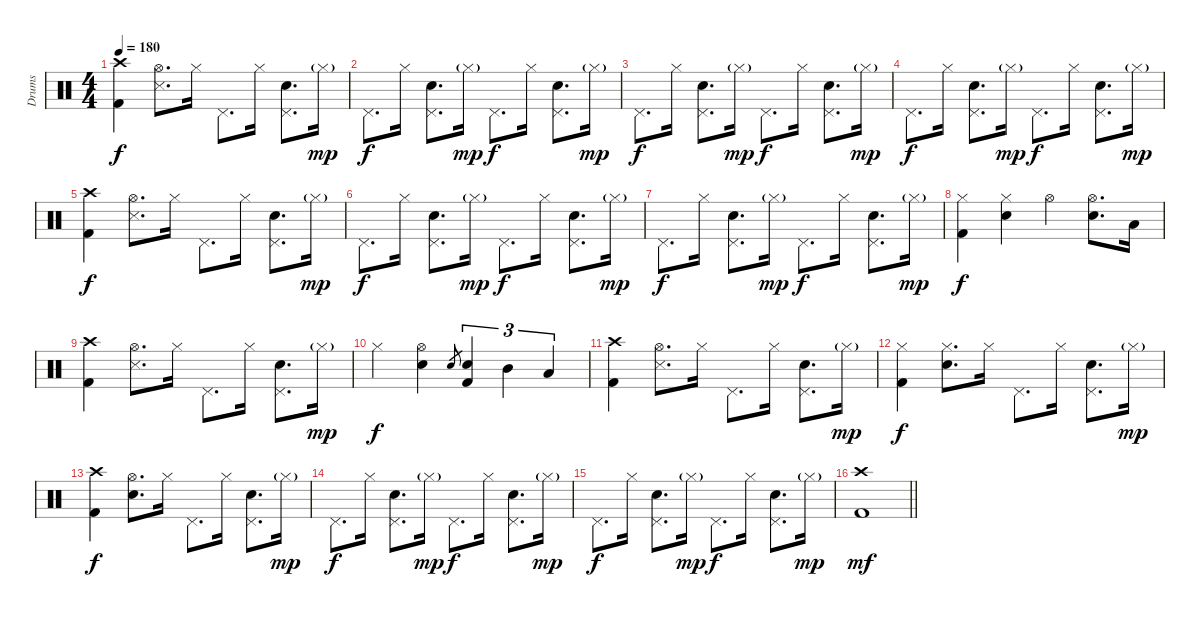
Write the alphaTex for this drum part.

\track ("Drums" "Drums") {instrument percussion}
\staff {score}
\articulation defaults
\ts (4 4)
\tempo 180
\clef neutral
\ks c
("Crash high (hit)" "Kick (hit) 2").4{dy f} ("Hi-Hat (open)" "Snare (side stick) 3").8{d} "Hi-Hat (closed)".16 "Pedal Hi-Hat (hit)".8{d} "Hi-Hat (closed)".16 ("Pedal Hi-Hat (hit)" "Snare (hit) 2").8{d} "Hi-Hat (closed)"{g}.16{dy mp} |
"Pedal Hi-Hat (hit)".8{d dy f} "Hi-Hat (closed)".16 ("Pedal Hi-Hat (hit)" "Snare (hit) 2").8{d} "Hi-Hat (closed)"{g}.16{dy mp} "Pedal Hi-Hat (hit)".8{d dy f} "Hi-Hat (closed)".16 ("Pedal Hi-Hat (hit)" "Snare (hit) 2").8{d} "Hi-Hat (closed)"{g}.16{dy mp} |
"Pedal Hi-Hat (hit)".8{d dy f} "Hi-Hat (closed)".16 ("Pedal Hi-Hat (hit)" "Snare (hit) 2").8{d} "Hi-Hat (closed)"{g}.16{dy mp} "Pedal Hi-Hat (hit)".8{d dy f} "Hi-Hat (closed)".16 ("Pedal Hi-Hat (hit)" "Snare (hit) 2").8{d} "Hi-Hat (closed)"{g}.16{dy mp} |
"Pedal Hi-Hat (hit)".8{d dy f} "Hi-Hat (closed)".16 ("Pedal Hi-Hat (hit)" "Snare (hit) 2").8{d} "Hi-Hat (closed)"{g}.16{dy mp} "Pedal Hi-Hat (hit)".8{d dy f} "Hi-Hat (closed)".16 ("Pedal Hi-Hat (hit)" "Snare (hit) 2").8{d} "Hi-Hat (closed)"{g}.16{dy mp} |
("Crash high (hit)" "Kick (hit) 2").4{dy f} ("Hi-Hat (open)" "Snare (side stick) 3").8{d} "Hi-Hat (closed)".16 "Pedal Hi-Hat (hit)".8{d} "Hi-Hat (closed)".16 ("Pedal Hi-Hat (hit)" "Snare (hit) 2").8{d} "Hi-Hat (closed)"{g}.16{dy mp} |
"Pedal Hi-Hat (hit)".8{d dy f} "Hi-Hat (closed)".16 ("Pedal Hi-Hat (hit)" "Snare (hit) 2").8{d} "Hi-Hat (closed)"{g}.16{dy mp} "Pedal Hi-Hat (hit)".8{d dy f} "Hi-Hat (closed)".16 ("Pedal Hi-Hat (hit)" "Snare (hit) 2").8{d} "Hi-Hat (closed)"{g}.16{dy mp} |
"Pedal Hi-Hat (hit)".8{d dy f} "Hi-Hat (closed)".16 ("Pedal Hi-Hat (hit)" "Snare (hit) 2").8{d} "Hi-Hat (closed)"{g}.16{dy mp} "Pedal Hi-Hat (hit)".8{d dy f} "Hi-Hat (closed)".16 ("Pedal Hi-Hat (hit)" "Snare (hit) 2").8{d} "Hi-Hat (closed)"{g}.16{dy mp} |
("Hi-Hat (closed)" "Kick (hit) 2").4{dy f} ("Hi-Hat (closed)" "Snare (hit) 2").4 "Hi-Hat (open)".4 ("Hi-Hat (open)" "Snare (hit) 2").8{d} "Low Tom (hit)".16 |
("Crash high (hit)" "Kick (hit) 2").4 ("Hi-Hat (open)" "Snare (side stick) 3").8{d} "Hi-Hat (closed)".16 "Pedal Hi-Hat (hit)".8{d} "Hi-Hat (closed)".16 ("Pedal Hi-Hat (hit)" "Snare (hit) 2").8{d} "Hi-Hat (closed)"{g}.16{dy mp} |
"Hi-Hat (closed)".4{dy f} ("Hi-Hat (open)" "Snare (hit) 2").4 "Snare (hit) 2".8{gr} ("Snare (hit) 2" "Kick (hit) 2").4{tu (3 2)} "Mid Tom (hit)".4{tu (3 2)} "Low Tom (hit)".4{tu (3 2)} |
("Crash high (hit)" "Kick (hit) 2").4 ("Hi-Hat (open)" "Snare (side stick) 3").8{d} "Hi-Hat (closed)".16 "Pedal Hi-Hat (hit)".8{d} "Hi-Hat (closed)".16 ("Pedal Hi-Hat (hit)" "Snare (hit) 2").8{d} "Hi-Hat (closed)"{g}.16{dy mp} |
("Hi-Hat (closed)" "Kick (hit) 2").4{dy f} ("Hi-Hat (closed)" "Snare (hit) 2").8{d} "Hi-Hat (closed)".16 "Pedal Hi-Hat (hit)".8{d} "Hi-Hat (closed)".16 ("Pedal Hi-Hat (hit)" "Snare (hit) 2").8{d} "Hi-Hat (closed)"{g}.16{dy mp} |
("Crash high (hit)" "Kick (hit) 2").4{dy f} ("Hi-Hat (open)" "Snare (hit) 2").8{d} "Hi-Hat (closed)".16 "Pedal Hi-Hat (hit)".8{d} "Hi-Hat (closed)".16 ("Pedal Hi-Hat (hit)" "Snare (hit) 2").8{d} "Hi-Hat (closed)"{g}.16{dy mp} |
"Pedal Hi-Hat (hit)".8{d dy f} "Hi-Hat (closed)".16 ("Pedal Hi-Hat (hit)" "Snare (hit) 2").8{d} "Hi-Hat (closed)"{g}.16{dy mp} "Pedal Hi-Hat (hit)".8{d dy f} "Hi-Hat (closed)".16 ("Pedal Hi-Hat (hit)" "Snare (hit) 2").8{d} "Hi-Hat (closed)"{g}.16{dy mp} |
"Pedal Hi-Hat (hit)".8{d dy f} "Hi-Hat (closed)".16 ("Pedal Hi-Hat (hit)" "Snare (hit) 2").8{d} "Hi-Hat (closed)"{g}.16{dy mp} "Pedal Hi-Hat (hit)".8{d dy f} "Hi-Hat (closed)".16 ("Pedal Hi-Hat (hit)" "Snare (hit) 2").8{d} "Hi-Hat (closed)"{g}.16{dy mp} |
\barLineRight lightlight
("Crash high (hit)" "Kick (hit) 2").1{dy mf}
